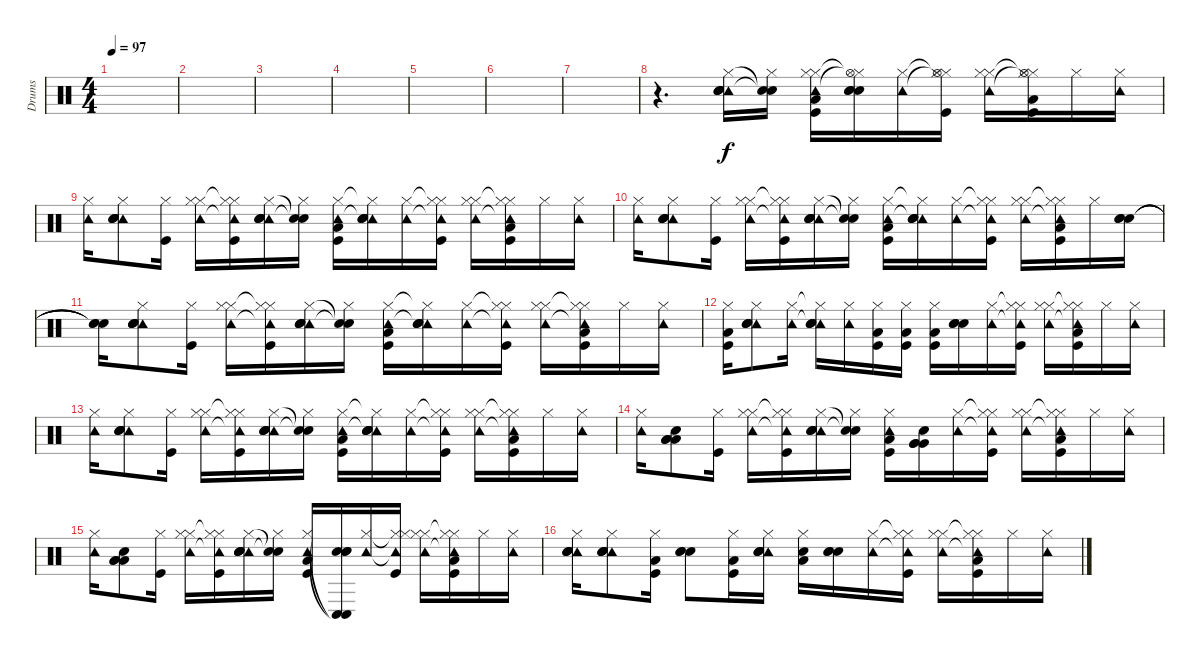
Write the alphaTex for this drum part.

\track ("Drums" "Drums") {instrument percussion}
\staff {score}
\articulation defaults
\ts (4 4)
\tempo 97
\clef neutral
\ks c
|
|
|
|
|
|
|
r.4{d} ("Hi-Hat (closed)" "Tambourine (hit)" "Electric Snare (hit)" "Snare (hit) 2" "Snare (hit) 2").16 ("Snare (hit)"{t} "Snare (hit)"{t} "Hi-Hat (closed)").16 ("Hi-Hat (closed)" "Tambourine (hit)" "Hi-Hat (closed)" "Kick (hit)" "Low Tom (hit)").16 ("Hi-Hat (closed)"{t} "Hi-Hat (open)"{t} "Electric Snare (hit)" "Snare (hit) 2" "Snare (hit) 2").16 ("Hi-Hat (closed)" "Tambourine (hit)").16 ("Hi-Hat (closed)"{t} "Hi-Hat (open)"{t} "Kick (hit)" "Hi-Hat (closed)").16 ("Hi-Hat (closed)" "Tambourine (hit)" "Hi-Hat (closed)").16 ("Hi-Hat (closed)"{t} "Hi-Hat (open)"{t} "Kick (hit)" "Hi-Hat (closed)" "Low Tom (hit)").16 "Hi-Hat (closed)".16 ("Hi-Hat (closed)" "Tambourine (hit)").16 |
("Hi-Hat (closed)" "Tambourine (hit)").16 ("Hi-Hat (closed)" "Tambourine (hit)" "Electric Snare (hit)" "Snare (hit) 2" "Snare (hit) 2").8 ("Kick (hit)" "Hi-Hat (closed)").16 ("Hi-Hat (closed)" "Tambourine (hit)" "Hi-Hat (closed)").16 ("Hi-Hat (closed)"{t} "Tambourine (hit)"{t} "Kick (hit)" "Hi-Hat (closed)").16 ("Hi-Hat (closed)" "Tambourine (hit)" "Electric Snare (hit)" "Snare (hit) 2" "Snare (hit) 2").16 ("Snare (hit)"{t} "Snare (hit)"{t} "Hi-Hat (closed)").16 ("Hi-Hat (closed)" "Tambourine (hit)" "Kick (hit)" "Low Tom (hit)").16 ("Hi-Hat (closed)"{t} "Tambourine (hit)"{t} "Electric Snare (hit)" "Snare (hit) 2" "Snare (hit) 2").16 ("Hi-Hat (closed)" "Tambourine (hit)").16 ("Hi-Hat (closed)"{t} "Tambourine (hit)"{t} "Kick (hit)" "Hi-Hat (closed)").16 ("Hi-Hat (closed)" "Tambourine (hit)" "Hi-Hat (closed)").16 ("Hi-Hat (closed)"{t} "Tambourine (hit)"{t} "Kick (hit)" "Hi-Hat (closed)" "Low Tom (hit)").16 "Hi-Hat (closed)".16 ("Hi-Hat (closed)" "Tambourine (hit)").16 |
("Hi-Hat (closed)" "Tambourine (hit)").16 ("Hi-Hat (closed)" "Tambourine (hit)" "Electric Snare (hit)" "Snare (hit) 2" "Snare (hit) 2").8 ("Kick (hit)" "Hi-Hat (closed)").16 ("Hi-Hat (closed)" "Tambourine (hit)" "Hi-Hat (closed)").16 ("Hi-Hat (closed)"{t} "Tambourine (hit)"{t} "Kick (hit)" "Hi-Hat (closed)").16 ("Hi-Hat (closed)" "Tambourine (hit)" "Electric Snare (hit)" "Snare (hit) 2" "Snare (hit) 2").16 ("Snare (hit)"{t} "Snare (hit)"{t} "Hi-Hat (closed)").16 ("Hi-Hat (closed)" "Tambourine (hit)" "Kick (hit)" "Low Tom (hit)").16 ("Hi-Hat (closed)"{t} "Tambourine (hit)"{t} "Electric Snare (hit)" "Snare (hit) 2" "Snare (hit) 2").16 ("Hi-Hat (closed)" "Tambourine (hit)").16 ("Hi-Hat (closed)"{t} "Tambourine (hit)"{t} "Kick (hit)" "Hi-Hat (closed)").16 ("Hi-Hat (closed)" "Tambourine (hit)" "Hi-Hat (closed)").16 ("Hi-Hat (closed)"{t} "Tambourine (hit)"{t} "Kick (hit)" "Hi-Hat (closed)" "Low Tom (hit)").16 "Hi-Hat (closed)".16 ("Electric Snare (hit)" "Snare (hit) 2" "Snare (hit) 2").16 |
("Snare (hit)"{t} "Snare (hit)"{t} "Snare (hit)"{t}).16 ("Hi-Hat (closed)" "Tambourine (hit)" "Electric Snare (hit)" "Snare (hit) 2" "Snare (hit) 2").8 ("Kick (hit)" "Hi-Hat (closed)").16 ("Hi-Hat (closed)" "Tambourine (hit)" "Hi-Hat (closed)").16 ("Hi-Hat (closed)"{t} "Tambourine (hit)"{t} "Kick (hit)" "Hi-Hat (closed)").16 ("Hi-Hat (closed)" "Tambourine (hit)" "Electric Snare (hit)" "Snare (hit) 2" "Snare (hit) 2").16 ("Snare (hit)"{t} "Snare (hit)"{t} "Hi-Hat (closed)").16 ("Hi-Hat (closed)" "Tambourine (hit)" "Kick (hit)" "Low Tom (hit)").16 ("Hi-Hat (closed)"{t} "Tambourine (hit)"{t} "Electric Snare (hit)" "Snare (hit) 2" "Snare (hit) 2").16 ("Hi-Hat (closed)" "Tambourine (hit)").16 ("Hi-Hat (closed)"{t} "Tambourine (hit)"{t} "Kick (hit)" "Hi-Hat (closed)").16 ("Hi-Hat (closed)" "Tambourine (hit)" "Hi-Hat (closed)").16 ("Hi-Hat (closed)"{t} "Tambourine (hit)"{t} "Kick (hit)" "Hi-Hat (closed)" "Low Tom (hit)").16 "Hi-Hat (closed)".16 ("Hi-Hat (closed)" "Tambourine (hit)").16 |
("Kick (hit)" "Hi-Hat (closed)" "Low Tom (hit)").16 ("Hi-Hat (closed)" "Tambourine (hit)" "Electric Snare (hit)" "Snare (hit) 2" "Snare (hit) 2").8 ("Hi-Hat (closed)" "Tambourine (hit)").16 ("Hi-Hat (closed)"{t} "Tambourine (hit)"{t} "Electric Snare (hit)" "Snare (hit) 2" "Snare (hit) 2").16 ("Hi-Hat (closed)" "Tambourine (hit)").16 ("Kick (hit)" "Hi-Hat (closed)" "Low Tom (hit)").16 ("Kick (hit)" "Hi-Hat (closed)" "Low Tom (hit)").16 ("Kick (hit)" "Hi-Hat (closed)" "Low Tom (hit)").16 ("Electric Snare (hit)" "Snare (hit) 2" "Snare (hit) 2").16 ("Hi-Hat (closed)" "Tambourine (hit)").16 ("Hi-Hat (closed)"{t} "Tambourine (hit)"{t} "Kick (hit)" "Hi-Hat (closed)").16 ("Hi-Hat (closed)" "Tambourine (hit)" "Hi-Hat (closed)").16 ("Hi-Hat (closed)"{t} "Tambourine (hit)"{t} "Kick (hit)" "Hi-Hat (closed)" "Low Tom (hit)").16 "Hi-Hat (closed)".16 ("Hi-Hat (closed)" "Tambourine (hit)").16 |
("Hi-Hat (closed)" "Tambourine (hit)").16 ("Hi-Hat (closed)" "Tambourine (hit)" "Electric Snare (hit)" "Snare (hit) 2" "Snare (hit) 2").8 ("Kick (hit)" "Hi-Hat (closed)").16 ("Hi-Hat (closed)" "Tambourine (hit)" "Hi-Hat (closed)").16 ("Hi-Hat (closed)"{t} "Tambourine (hit)"{t} "Kick (hit)" "Hi-Hat (closed)").16 ("Hi-Hat (closed)" "Tambourine (hit)" "Electric Snare (hit)" "Snare (hit) 2" "Snare (hit) 2").16 ("Snare (hit)"{t} "Snare (hit)"{t} "Hi-Hat (closed)").16 ("Hi-Hat (closed)" "Tambourine (hit)" "Kick (hit)" "Low Tom (hit)").16 ("Hi-Hat (closed)"{t} "Tambourine (hit)"{t} "Electric Snare (hit)" "Snare (hit) 2" "Snare (hit) 2").16 ("Hi-Hat (closed)" "Tambourine (hit)").16 ("Hi-Hat (closed)"{t} "Tambourine (hit)"{t} "Kick (hit)" "Hi-Hat (closed)").16 ("Hi-Hat (closed)" "Tambourine (hit)" "Hi-Hat (closed)").16 ("Hi-Hat (closed)"{t} "Tambourine (hit)"{t} "Kick (hit)" "Hi-Hat (closed)" "Low Tom (hit)").16 "Hi-Hat (closed)".16 ("Hi-Hat (closed)" "Tambourine (hit)").16 |
("Hi-Hat (closed)" "Tambourine (hit)").16 ("Electric Snare (hit)" "Low Tom (hit)" "Low Tom (hit)" "Low Tom (hit)").8 ("Kick (hit)" "Hi-Hat (closed)").16 ("Hi-Hat (closed)" "Tambourine (hit)" "Hi-Hat (closed)").16 ("Hi-Hat (closed)"{t} "Tambourine (hit)"{t} "Kick (hit)" "Hi-Hat (closed)").16 ("Hi-Hat (closed)" "Tambourine (hit)" "Electric Snare (hit)" "Snare (hit) 2" "Snare (hit) 2").16 ("Snare (hit)"{t} "Snare (hit)"{t} "Hi-Hat (closed)").16 ("Hi-Hat (closed)" "Tambourine (hit)" "Kick (hit)" "Low Tom (hit)").16 ("Electric Snare (hit)" "Very Low Tom (hit)" "Very Low Tom (hit)" "Very Low Tom (hit)").16 ("Hi-Hat (closed)" "Tambourine (hit)").16 ("Hi-Hat (closed)"{t} "Tambourine (hit)"{t} "Kick (hit)" "Hi-Hat (closed)").16 ("Hi-Hat (closed)" "Tambourine (hit)" "Hi-Hat (closed)").16 ("Hi-Hat (closed)"{t} "Tambourine (hit)"{t} "Kick (hit)" "Hi-Hat (closed)" "Low Tom (hit)").16 "Hi-Hat (closed)".16 ("Hi-Hat (closed)" "Tambourine (hit)").16 |
("Hi-Hat (closed)" "Tambourine (hit)").16 ("Electric Snare (hit)" "Low Floor Tom (hit)" "Low Floor Tom (hit)" "Low Floor Tom (hit)").8 ("Kick (hit)" "Hi-Hat (closed)").16 ("Hi-Hat (closed)" "Tambourine (hit)" "Hi-Hat (closed)").16 ("Hi-Hat (closed)"{t} "Tambourine (hit)"{t} "Kick (hit)" "Hi-Hat (closed)").16 ("Hi-Hat (closed)" "Tambourine (hit)" "Electric Snare (hit)" "Snare (hit) 2" "Snare (hit) 2").16 ("Snare (hit)"{t} "Snare (hit)"{t} "Hi-Hat (closed)").16 ("Hi-Hat (closed)" "Tambourine (hit)" "Kick (hit)" "Low Tom (hit)").16 ("Conga low (hit)"{t} "Conga low (hit)"{t} "Electric Snare (hit)" "Snare (hit) 2" "Snare (hit) 2").16 ("Hi-Hat (closed)" "Tambourine (hit)").16 ("Hi-Hat (closed)"{t} "Tambourine (hit)"{t} "Kick (hit)" "Hi-Hat (closed)").16 ("Hi-Hat (closed)" "Tambourine (hit)" "Hi-Hat (closed)").16 ("Hi-Hat (closed)"{t} "Tambourine (hit)"{t} "Kick (hit)" "Hi-Hat (closed)" "Low Tom (hit)").16 "Hi-Hat (closed)".16 ("Hi-Hat (closed)" "Tambourine (hit)").16 |
("Hi-Hat (closed)" "Tambourine (hit)" "Electric Snare (hit)" "Snare (hit) 2" "Snare (hit) 2").16 ("Hi-Hat (closed)" "Tambourine (hit)" "Electric Snare (hit)" "Snare (hit) 2" "Snare (hit) 2").8 ("Kick (hit)" "Hi-Hat (closed)" "Low Tom (hit)").16 ("Electric Snare (hit)" "Snare (hit) 2" "Snare (hit) 2").8 ("Kick (hit)" "Hi-Hat (closed)" "Low Tom (hit)").16 ("Hi-Hat (closed)" "Tambourine (hit)" "Electric Snare (hit)" "Snare (hit) 2" "Snare (hit) 2").16 ("Metronome (bell)" "Hi-Hat (closed)" "Low Tom (hit)").16 ("Electric Snare (hit)" "Snare (hit) 2" "Snare (hit) 2").16 ("Hi-Hat (closed)" "Tambourine (hit)").16 ("Hi-Hat (closed)"{t} "Tambourine (hit)"{t} "Kick (hit)" "Hi-Hat (closed)").16 ("Hi-Hat (closed)" "Tambourine (hit)" "Hi-Hat (closed)").16 ("Hi-Hat (closed)"{t} "Tambourine (hit)"{t} "Kick (hit)" "Hi-Hat (closed)" "Low Tom (hit)").16 "Hi-Hat (closed)".16 ("Hi-Hat (closed)" "Tambourine (hit)").16
